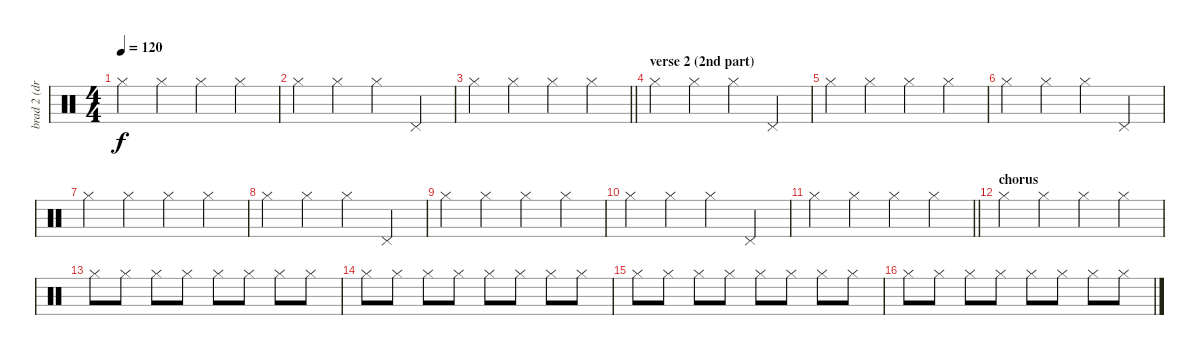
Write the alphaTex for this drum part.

\track ("brad 2 (drums hit hat)" "brad 2 (dr") {instrument percussion}
\staff {score}
\articulation defaults
\ts (4 4)
\tempo 120
\clef neutral
\ks c "Hi-Hat (closed)".4{dy f} "Hi-Hat (closed)".4 "Hi-Hat (closed)".4 "Hi-Hat (closed)".4
|
"Hi-Hat (closed)".4 "Hi-Hat (closed)".4 "Hi-Hat (closed)".4 "Pedal Hi-Hat (hit)".4 |
\barLineRight lightlight "Hi-Hat (closed)".4 "Hi-Hat (closed)".4 "Hi-Hat (closed)".4 "Hi-Hat (closed)".4
|
\section ("" "verse 2 (2nd part)")
"Hi-Hat (closed)".4 "Hi-Hat (closed)".4 "Hi-Hat (closed)".4 "Pedal Hi-Hat (hit)".4 |
"Hi-Hat (closed)".4 "Hi-Hat (closed)".4 "Hi-Hat (closed)".4 "Hi-Hat (closed)".4 |
"Hi-Hat (closed)".4 "Hi-Hat (closed)".4 "Hi-Hat (closed)".4 "Pedal Hi-Hat (hit)".4 |
"Hi-Hat (closed)".4 "Hi-Hat (closed)".4 "Hi-Hat (closed)".4 "Hi-Hat (closed)".4 |
"Hi-Hat (closed)".4 "Hi-Hat (closed)".4 "Hi-Hat (closed)".4 "Pedal Hi-Hat (hit)".4 |
"Hi-Hat (closed)".4 "Hi-Hat (closed)".4 "Hi-Hat (closed)".4 "Hi-Hat (closed)".4 |
"Hi-Hat (closed)".4 "Hi-Hat (closed)".4 "Hi-Hat (closed)".4 "Pedal Hi-Hat (hit)".4 |
\barLineRight lightlight "Hi-Hat (closed)".4 "Hi-Hat (closed)".4 "Hi-Hat (closed)".4 "Hi-Hat (closed)".4
|
\section ("" "chorus")
"Hi-Hat (closed)".4 "Hi-Hat (closed)".4 "Hi-Hat (closed)".4 "Hi-Hat (closed)".4 |
"Hi-Hat (closed)".8 "Hi-Hat (closed)".8 "Hi-Hat (closed)".8 "Hi-Hat (closed)".8 "Hi-Hat (closed)".8 "Hi-Hat (closed)".8 "Hi-Hat (closed)".8 "Hi-Hat (closed)".8 |
"Hi-Hat (closed)".8 "Hi-Hat (closed)".8 "Hi-Hat (closed)".8 "Hi-Hat (closed)".8 "Hi-Hat (closed)".8 "Hi-Hat (closed)".8 "Hi-Hat (closed)".8 "Hi-Hat (closed)".8 |
"Hi-Hat (closed)".8 "Hi-Hat (closed)".8 "Hi-Hat (closed)".8 "Hi-Hat (closed)".8 "Hi-Hat (closed)".8 "Hi-Hat (closed)".8 "Hi-Hat (closed)".8 "Hi-Hat (closed)".8 |
"Hi-Hat (closed)".8 "Hi-Hat (closed)".8 "Hi-Hat (closed)".8 "Hi-Hat (closed)".8 "Hi-Hat (closed)".8 "Hi-Hat (closed)".8 "Hi-Hat (closed)".8 "Hi-Hat (closed)".8
